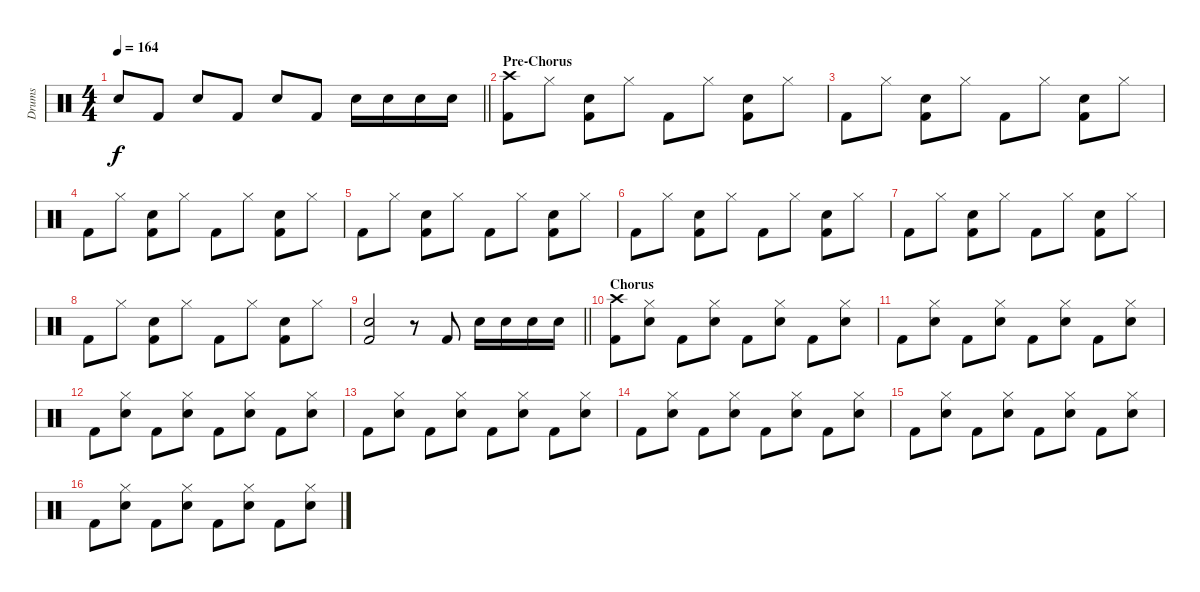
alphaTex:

\track ("Drums" "Drums") {instrument percussion}
\staff {score}
\articulation defaults
\ts (4 4)
\tempo 164
\clef neutral
\barLineRight lightlight
\ks c "Electric Snare (hit)".8{dy f} "Kick (hit) 2".8 "Electric Snare (hit)".8 "Kick (hit) 2".8 "Electric Snare (hit)".8 "Kick (hit) 2".8 "Electric Snare (hit)".16 "Electric Snare (hit)".16 "Electric Snare (hit)".16 "Electric Snare (hit)".16
|
\section ("" "Pre-Chorus")
("Crash high (hit)" "Kick (hit) 2").8 "Hi-Hat (closed)".8 ("Electric Snare (hit)" "Kick (hit) 2").8 "Hi-Hat (closed)".8 "Kick (hit) 2".8 "Hi-Hat (closed)".8 ("Electric Snare (hit)" "Kick (hit) 2").8 "Hi-Hat (closed)".8 |
"Kick (hit) 2".8 "Hi-Hat (closed)".8 ("Electric Snare (hit)" "Kick (hit) 2").8 "Hi-Hat (closed)".8 "Kick (hit) 2".8 "Hi-Hat (closed)".8 ("Electric Snare (hit)" "Kick (hit) 2").8 "Hi-Hat (closed)".8 |
"Kick (hit) 2".8 "Hi-Hat (closed)".8 ("Electric Snare (hit)" "Kick (hit) 2").8 "Hi-Hat (closed)".8 "Kick (hit) 2".8 "Hi-Hat (closed)".8 ("Electric Snare (hit)" "Kick (hit) 2").8 "Hi-Hat (closed)".8 |
"Kick (hit) 2".8 "Hi-Hat (closed)".8 ("Electric Snare (hit)" "Kick (hit) 2").8 "Hi-Hat (closed)".8 "Kick (hit) 2".8 "Hi-Hat (closed)".8 ("Electric Snare (hit)" "Kick (hit) 2").8 "Hi-Hat (closed)".8 |
"Kick (hit) 2".8 "Hi-Hat (closed)".8 ("Electric Snare (hit)" "Kick (hit) 2").8 "Hi-Hat (closed)".8 "Kick (hit) 2".8 "Hi-Hat (closed)".8 ("Electric Snare (hit)" "Kick (hit) 2").8 "Hi-Hat (closed)".8 |
"Kick (hit) 2".8 "Hi-Hat (closed)".8 ("Electric Snare (hit)" "Kick (hit) 2").8 "Hi-Hat (closed)".8 "Kick (hit) 2".8 "Hi-Hat (closed)".8 ("Electric Snare (hit)" "Kick (hit) 2").8 "Hi-Hat (closed)".8 |
"Kick (hit) 2".8 "Hi-Hat (closed)".8 ("Electric Snare (hit)" "Kick (hit) 2").8 "Hi-Hat (closed)".8 "Kick (hit) 2".8 "Hi-Hat (closed)".8 ("Electric Snare (hit)" "Kick (hit) 2").8 "Hi-Hat (closed)".8 |
\barLineRight lightlight
("Electric Snare (hit)" "Kick (hit) 2").2 r.8 "Kick (hit) 2".8 "Electric Snare (hit)".16 "Electric Snare (hit)".16 "Electric Snare (hit)".16 "Electric Snare (hit)".16 |
\section ("" "Chorus")
("Crash high (hit)" "Kick (hit) 2").8 ("Hi-Hat (closed)" "Electric Snare (hit)").8 "Kick (hit) 2".8 ("Hi-Hat (closed)" "Electric Snare (hit)").8 "Kick (hit) 2".8 ("Hi-Hat (closed)" "Electric Snare (hit)").8 "Kick (hit) 2".8 ("Hi-Hat (closed)" "Electric Snare (hit)").8 |
"Kick (hit) 2".8 ("Hi-Hat (closed)" "Electric Snare (hit)").8 "Kick (hit) 2".8 ("Hi-Hat (closed)" "Electric Snare (hit)").8 "Kick (hit) 2".8 ("Hi-Hat (closed)" "Electric Snare (hit)").8 "Kick (hit) 2".8 ("Hi-Hat (closed)" "Electric Snare (hit)").8 |
"Kick (hit) 2".8 ("Hi-Hat (closed)" "Electric Snare (hit)").8 "Kick (hit) 2".8 ("Hi-Hat (closed)" "Electric Snare (hit)").8 "Kick (hit) 2".8 ("Hi-Hat (closed)" "Electric Snare (hit)").8 "Kick (hit) 2".8 ("Hi-Hat (closed)" "Electric Snare (hit)").8 |
"Kick (hit) 2".8 ("Hi-Hat (closed)" "Electric Snare (hit)").8 "Kick (hit) 2".8 ("Hi-Hat (closed)" "Electric Snare (hit)").8 "Kick (hit) 2".8 ("Hi-Hat (closed)" "Electric Snare (hit)").8 "Kick (hit) 2".8 ("Hi-Hat (closed)" "Electric Snare (hit)").8 |
"Kick (hit) 2".8 ("Hi-Hat (closed)" "Electric Snare (hit)").8 "Kick (hit) 2".8 ("Hi-Hat (closed)" "Electric Snare (hit)").8 "Kick (hit) 2".8 ("Hi-Hat (closed)" "Electric Snare (hit)").8 "Kick (hit) 2".8 ("Hi-Hat (closed)" "Electric Snare (hit)").8 |
"Kick (hit) 2".8 ("Hi-Hat (closed)" "Electric Snare (hit)").8 "Kick (hit) 2".8 ("Hi-Hat (closed)" "Electric Snare (hit)").8 "Kick (hit) 2".8 ("Hi-Hat (closed)" "Electric Snare (hit)").8 "Kick (hit) 2".8 ("Hi-Hat (closed)" "Electric Snare (hit)").8 |
"Kick (hit) 2".8 ("Hi-Hat (closed)" "Electric Snare (hit)").8 "Kick (hit) 2".8 ("Hi-Hat (closed)" "Electric Snare (hit)").8 "Kick (hit) 2".8 ("Hi-Hat (closed)" "Electric Snare (hit)").8 "Kick (hit) 2".8 ("Hi-Hat (closed)" "Electric Snare (hit)").8
